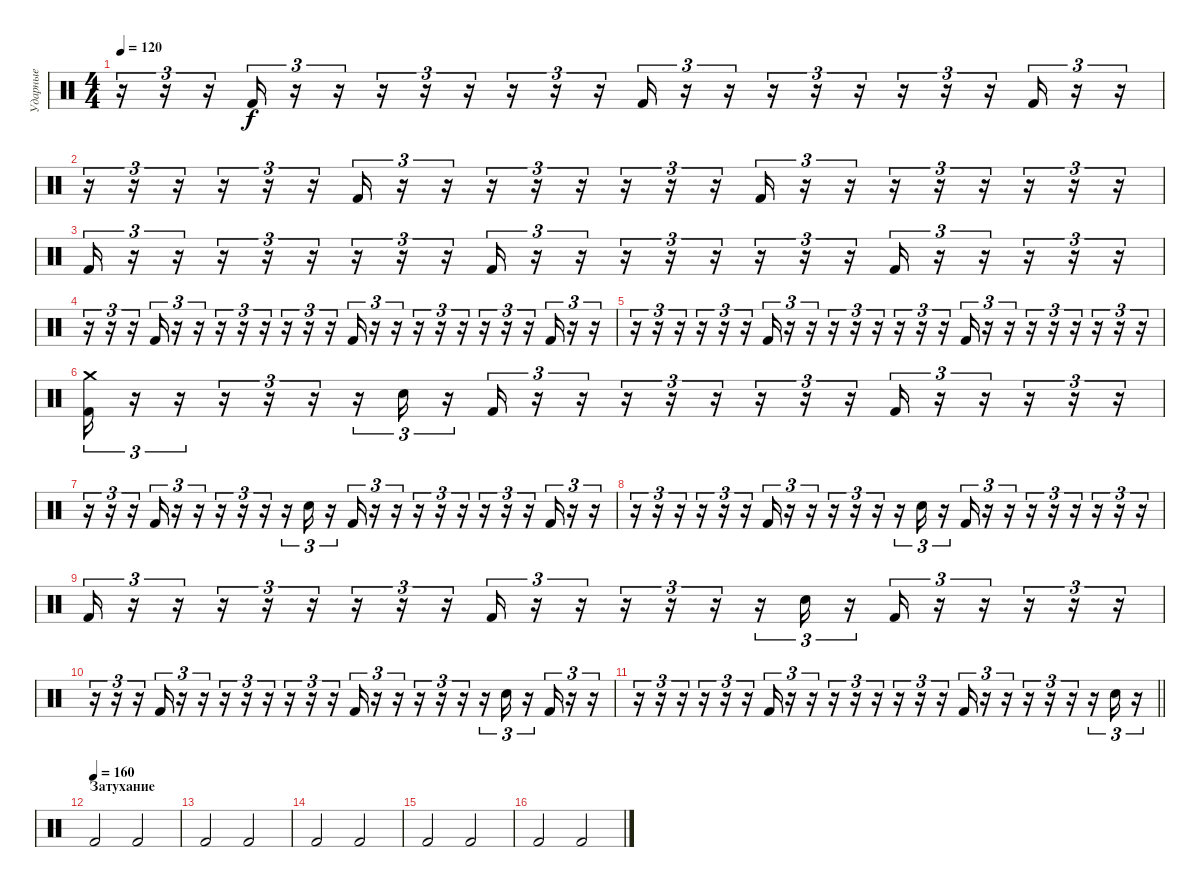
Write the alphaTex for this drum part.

\track ("Ударные" "Ударные") {instrument percussion}
\staff {score}
\articulation defaults
\ts (4 4)
\tempo 120
\clef neutral
\ks c
r.16{tu (3 2) dy f} r.16{tu (3 2)} r.16{tu (3 2)} "Kick (hit) 2".16{tu (3 2)} r.16{tu (3 2)} r.16{tu (3 2)} r.16{tu (3 2)} r.16{tu (3 2)} r.16{tu (3 2)} r.16{tu (3 2)} r.16{tu (3 2)} r.16{tu (3 2)} "Kick (hit) 2".16{tu (3 2)} r.16{tu (3 2)} r.16{tu (3 2)} r.16{tu (3 2)} r.16{tu (3 2)} r.16{tu (3 2)} r.16{tu (3 2)} r.16{tu (3 2)} r.16{tu (3 2)} "Kick (hit) 2".16{tu (3 2)} r.16{tu (3 2)} r.16{tu (3 2)} |
r.16{tu (3 2)} r.16{tu (3 2)} r.16{tu (3 2)} r.16{tu (3 2)} r.16{tu (3 2)} r.16{tu (3 2)} "Kick (hit) 2".16{tu (3 2)} r.16{tu (3 2)} r.16{tu (3 2)} r.16{tu (3 2)} r.16{tu (3 2)} r.16{tu (3 2)} r.16{tu (3 2)} r.16{tu (3 2)} r.16{tu (3 2)} "Kick (hit) 2".16{tu (3 2)} r.16{tu (3 2)} r.16{tu (3 2)} r.16{tu (3 2)} r.16{tu (3 2)} r.16{tu (3 2)} r.16{tu (3 2)} r.16{tu (3 2)} r.16{tu (3 2)} |
"Kick (hit) 2".16{tu (3 2)} r.16{tu (3 2)} r.16{tu (3 2)} r.16{tu (3 2)} r.16{tu (3 2)} r.16{tu (3 2)} r.16{tu (3 2)} r.16{tu (3 2)} r.16{tu (3 2)} "Kick (hit) 2".16{tu (3 2)} r.16{tu (3 2)} r.16{tu (3 2)} r.16{tu (3 2)} r.16{tu (3 2)} r.16{tu (3 2)} r.16{tu (3 2)} r.16{tu (3 2)} r.16{tu (3 2)} "Kick (hit) 2".16{tu (3 2)} r.16{tu (3 2)} r.16{tu (3 2)} r.16{tu (3 2)} r.16{tu (3 2)} r.16{tu (3 2)} |
r.16{tu (3 2)} r.16{tu (3 2)} r.16{tu (3 2)} "Kick (hit) 2".16{tu (3 2)} r.16{tu (3 2)} r.16{tu (3 2)} r.16{tu (3 2)} r.16{tu (3 2)} r.16{tu (3 2)} r.16{tu (3 2)} r.16{tu (3 2)} r.16{tu (3 2)} "Kick (hit) 2".16{tu (3 2)} r.16{tu (3 2)} r.16{tu (3 2)} r.16{tu (3 2)} r.16{tu (3 2)} r.16{tu (3 2)} r.16{tu (3 2)} r.16{tu (3 2)} r.16{tu (3 2)} "Kick (hit) 2".16{tu (3 2)} r.16{tu (3 2)} r.16{tu (3 2)} |
r.16{tu (3 2)} r.16{tu (3 2)} r.16{tu (3 2)} r.16{tu (3 2)} r.16{tu (3 2)} r.16{tu (3 2)} "Kick (hit) 2".16{tu (3 2)} r.16{tu (3 2)} r.16{tu (3 2)} r.16{tu (3 2)} r.16{tu (3 2)} r.16{tu (3 2)} r.16{tu (3 2)} r.16{tu (3 2)} r.16{tu (3 2)} "Kick (hit) 2".16{tu (3 2)} r.16{tu (3 2)} r.16{tu (3 2)} r.16{tu (3 2)} r.16{tu (3 2)} r.16{tu (3 2)} r.16{tu (3 2)} r.16{tu (3 2)} r.16{tu (3 2)} |
("Crash medium (hit)" "Kick (hit) 2").16{tu (3 2)} r.16{tu (3 2)} r.16{tu (3 2)} r.16{tu (3 2)} r.16{tu (3 2)} r.16{tu (3 2)} r.16{tu (3 2)} "Snare (hit) 2".16{tu (3 2)} r.16{tu (3 2)} "Kick (hit) 2".16{tu (3 2)} r.16{tu (3 2)} r.16{tu (3 2)} r.16{tu (3 2)} r.16{tu (3 2)} r.16{tu (3 2)} r.16{tu (3 2)} r.16{tu (3 2)} r.16{tu (3 2)} "Kick (hit) 2".16{tu (3 2)} r.16{tu (3 2)} r.16{tu (3 2)} r.16{tu (3 2)} r.16{tu (3 2)} r.16{tu (3 2)} |
r.16{tu (3 2)} r.16{tu (3 2)} r.16{tu (3 2)} "Kick (hit) 2".16{tu (3 2)} r.16{tu (3 2)} r.16{tu (3 2)} r.16{tu (3 2)} r.16{tu (3 2)} r.16{tu (3 2)} r.16{tu (3 2)} "Snare (hit) 2".16{tu (3 2)} r.16{tu (3 2)} "Kick (hit) 2".16{tu (3 2)} r.16{tu (3 2)} r.16{tu (3 2)} r.16{tu (3 2)} r.16{tu (3 2)} r.16{tu (3 2)} r.16{tu (3 2)} r.16{tu (3 2)} r.16{tu (3 2)} "Kick (hit) 2".16{tu (3 2)} r.16{tu (3 2)} r.16{tu (3 2)} |
r.16{tu (3 2)} r.16{tu (3 2)} r.16{tu (3 2)} r.16{tu (3 2)} r.16{tu (3 2)} r.16{tu (3 2)} "Kick (hit) 2".16{tu (3 2)} r.16{tu (3 2)} r.16{tu (3 2)} r.16{tu (3 2)} r.16{tu (3 2)} r.16{tu (3 2)} r.16{tu (3 2)} "Snare (hit) 2".16{tu (3 2)} r.16{tu (3 2)} "Kick (hit) 2".16{tu (3 2)} r.16{tu (3 2)} r.16{tu (3 2)} r.16{tu (3 2)} r.16{tu (3 2)} r.16{tu (3 2)} r.16{tu (3 2)} r.16{tu (3 2)} r.16{tu (3 2)} |
"Kick (hit) 2".16{tu (3 2)} r.16{tu (3 2)} r.16{tu (3 2)} r.16{tu (3 2)} r.16{tu (3 2)} r.16{tu (3 2)} r.16{tu (3 2)} r.16{tu (3 2)} r.16{tu (3 2)} "Kick (hit) 2".16{tu (3 2)} r.16{tu (3 2)} r.16{tu (3 2)} r.16{tu (3 2)} r.16{tu (3 2)} r.16{tu (3 2)} r.16{tu (3 2)} "Snare (hit) 2".16{tu (3 2)} r.16{tu (3 2)} "Kick (hit) 2".16{tu (3 2)} r.16{tu (3 2)} r.16{tu (3 2)} r.16{tu (3 2)} r.16{tu (3 2)} r.16{tu (3 2)} |
r.16{tu (3 2)} r.16{tu (3 2)} r.16{tu (3 2)} "Kick (hit) 2".16{tu (3 2)} r.16{tu (3 2)} r.16{tu (3 2)} r.16{tu (3 2)} r.16{tu (3 2)} r.16{tu (3 2)} r.16{tu (3 2)} r.16{tu (3 2)} r.16{tu (3 2)} "Kick (hit) 2".16{tu (3 2)} r.16{tu (3 2)} r.16{tu (3 2)} r.16{tu (3 2)} r.16{tu (3 2)} r.16{tu (3 2)} r.16{tu (3 2)} "Snare (hit) 2".16{tu (3 2)} r.16{tu (3 2)} "Kick (hit) 2".16{tu (3 2)} r.16{tu (3 2)} r.16{tu (3 2)} |
\barLineRight lightlight
r.16{tu (3 2)} r.16{tu (3 2)} r.16{tu (3 2)} r.16{tu (3 2)} r.16{tu (3 2)} r.16{tu (3 2)} "Kick (hit) 2".16{tu (3 2)} r.16{tu (3 2)} r.16{tu (3 2)} r.16{tu (3 2)} r.16{tu (3 2)} r.16{tu (3 2)} r.16{tu (3 2)} r.16{tu (3 2)} r.16{tu (3 2)} "Kick (hit) 2".16{tu (3 2)} r.16{tu (3 2)} r.16{tu (3 2)} r.16{tu (3 2)} r.16{tu (3 2)} r.16{tu (3 2)} r.16{tu (3 2)} "Snare (hit) 2".16{tu (3 2)} r.16{tu (3 2)} |
\section ("" "Затухание")
\tempo (160)
"Kick (hit) 2".2 "Kick (hit) 2".2 |
"Kick (hit) 2".2 "Kick (hit) 2".2 |
"Kick (hit) 2".2 "Kick (hit) 2".2 |
"Kick (hit) 2".2 "Kick (hit) 2".2 |
"Kick (hit) 2".2 "Kick (hit) 2".2
